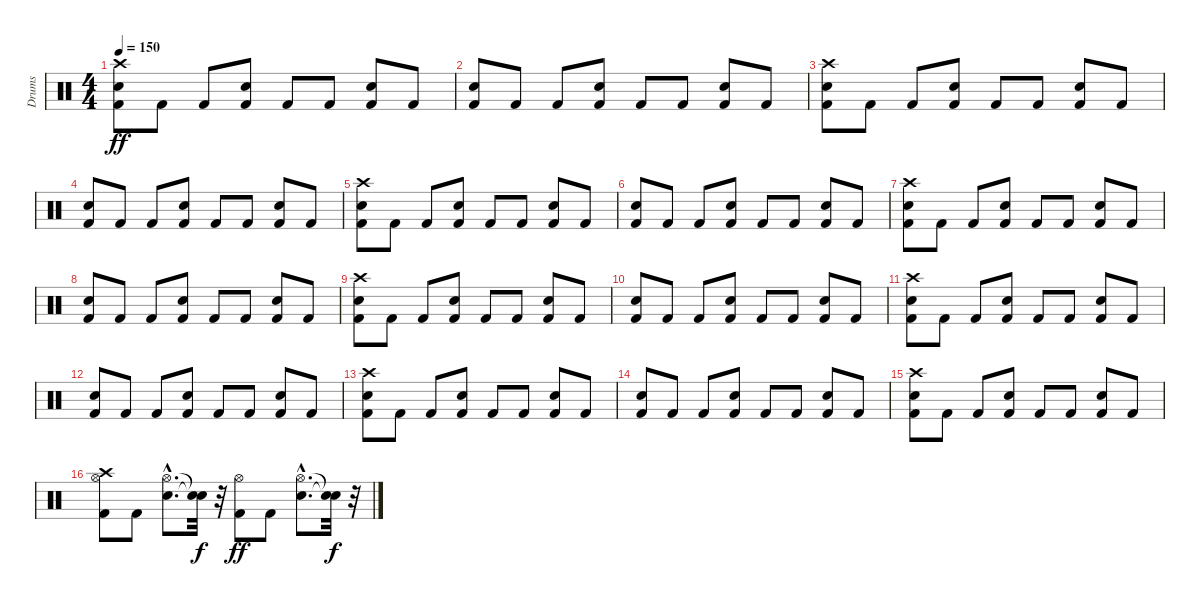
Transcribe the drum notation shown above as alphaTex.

\track ("Drums" "Drums") {instrument percussion}
\staff {score}
\articulation defaults
\ts (4 4)
\tempo 150
\clef neutral
\ks c
("Kick (hit) 2" "Snare (hit) 2" "Crash high (hit)").8{dy ff} "Kick (hit) 2".8 "Kick (hit) 2".8 ("Kick (hit) 2" "Snare (hit) 2").8 "Kick (hit) 2".8 "Kick (hit) 2".8 ("Kick (hit) 2" "Snare (hit) 2").8 "Kick (hit) 2".8 |
("Kick (hit) 2" "Snare (hit) 2").8 "Kick (hit) 2".8 "Kick (hit) 2".8 ("Kick (hit) 2" "Snare (hit) 2").8 "Kick (hit) 2".8 "Kick (hit) 2".8 ("Kick (hit) 2" "Snare (hit) 2").8 "Kick (hit) 2".8 |
("Kick (hit) 2" "Snare (hit) 2" "Crash high (hit)").8 "Kick (hit) 2".8 "Kick (hit) 2".8 ("Kick (hit) 2" "Snare (hit) 2").8 "Kick (hit) 2".8 "Kick (hit) 2".8 ("Kick (hit) 2" "Snare (hit) 2").8 "Kick (hit) 2".8 |
("Kick (hit) 2" "Snare (hit) 2").8 "Kick (hit) 2".8 "Kick (hit) 2".8 ("Kick (hit) 2" "Snare (hit) 2").8 "Kick (hit) 2".8 "Kick (hit) 2".8 ("Kick (hit) 2" "Snare (hit) 2").8 "Kick (hit) 2".8 |
("Kick (hit) 2" "Snare (hit) 2" "Crash high (hit)").8 "Kick (hit) 2".8 "Kick (hit) 2".8 ("Kick (hit) 2" "Snare (hit) 2").8 "Kick (hit) 2".8 "Kick (hit) 2".8 ("Kick (hit) 2" "Snare (hit) 2").8 "Kick (hit) 2".8 |
("Kick (hit) 2" "Snare (hit) 2").8 "Kick (hit) 2".8 "Kick (hit) 2".8 ("Kick (hit) 2" "Snare (hit) 2").8 "Kick (hit) 2".8 "Kick (hit) 2".8 ("Kick (hit) 2" "Snare (hit) 2").8 "Kick (hit) 2".8 |
("Kick (hit) 2" "Snare (hit) 2" "Crash high (hit)").8 "Kick (hit) 2".8 "Kick (hit) 2".8 ("Kick (hit) 2" "Snare (hit) 2").8 "Kick (hit) 2".8 "Kick (hit) 2".8 ("Kick (hit) 2" "Snare (hit) 2").8 "Kick (hit) 2".8 |
("Kick (hit) 2" "Snare (hit) 2").8 "Kick (hit) 2".8 "Kick (hit) 2".8 ("Kick (hit) 2" "Snare (hit) 2").8 "Kick (hit) 2".8 "Kick (hit) 2".8 ("Kick (hit) 2" "Snare (hit) 2").8 "Kick (hit) 2".8 |
("Kick (hit) 2" "Snare (hit) 2" "Crash high (hit)").8 "Kick (hit) 2".8 "Kick (hit) 2".8 ("Kick (hit) 2" "Snare (hit) 2").8 "Kick (hit) 2".8 "Kick (hit) 2".8 ("Kick (hit) 2" "Snare (hit) 2").8 "Kick (hit) 2".8 |
("Kick (hit) 2" "Snare (hit) 2").8 "Kick (hit) 2".8 "Kick (hit) 2".8 ("Kick (hit) 2" "Snare (hit) 2").8 "Kick (hit) 2".8 "Kick (hit) 2".8 ("Kick (hit) 2" "Snare (hit) 2").8 "Kick (hit) 2".8 |
("Kick (hit) 2" "Snare (hit) 2" "Crash high (hit)").8 "Kick (hit) 2".8 "Kick (hit) 2".8 ("Kick (hit) 2" "Snare (hit) 2").8 "Kick (hit) 2".8 "Kick (hit) 2".8 ("Kick (hit) 2" "Snare (hit) 2").8 "Kick (hit) 2".8 |
("Kick (hit) 2" "Snare (hit) 2").8 "Kick (hit) 2".8 "Kick (hit) 2".8 ("Kick (hit) 2" "Snare (hit) 2").8 "Kick (hit) 2".8 "Kick (hit) 2".8 ("Kick (hit) 2" "Snare (hit) 2").8 "Kick (hit) 2".8 |
("Kick (hit) 2" "Snare (hit) 2" "Crash high (hit)").8 "Kick (hit) 2".8 "Kick (hit) 2".8 ("Kick (hit) 2" "Snare (hit) 2").8 "Kick (hit) 2".8 "Kick (hit) 2".8 ("Kick (hit) 2" "Snare (hit) 2").8 "Kick (hit) 2".8 |
("Kick (hit) 2" "Snare (hit) 2").8 "Kick (hit) 2".8 "Kick (hit) 2".8 ("Kick (hit) 2" "Snare (hit) 2").8 "Kick (hit) 2".8 "Kick (hit) 2".8 ("Kick (hit) 2" "Snare (hit) 2").8 "Kick (hit) 2".8 |
("Kick (hit) 2" "Snare (hit) 2" "Crash high (hit)").8 "Kick (hit) 2".8 "Kick (hit) 2".8 ("Kick (hit) 2" "Snare (hit) 2").8 "Kick (hit) 2".8 "Kick (hit) 2".8 ("Kick (hit) 2" "Snare (hit) 2").8 "Kick (hit) 2".8 |
("Kick (hit) 2" "Hi-Hat (open)" "Crash high (hit)").8 "Kick (hit) 2".8 ("Snare (hit) 2"{hac} "Hi-Hat (open)"{hac}).8{d} ("Snare (hit)"{t} "Snare (hit)"{t}).32{dy f} r.32 ("Kick (hit) 2" "Hi-Hat (open)").8{dy ff} "Kick (hit) 2".8 ("Snare (hit) 2"{hac} "Hi-Hat (open)"{hac}).8{d} ("Snare (hit)"{t} "Snare (hit)"{t}).32{dy f} r.32
